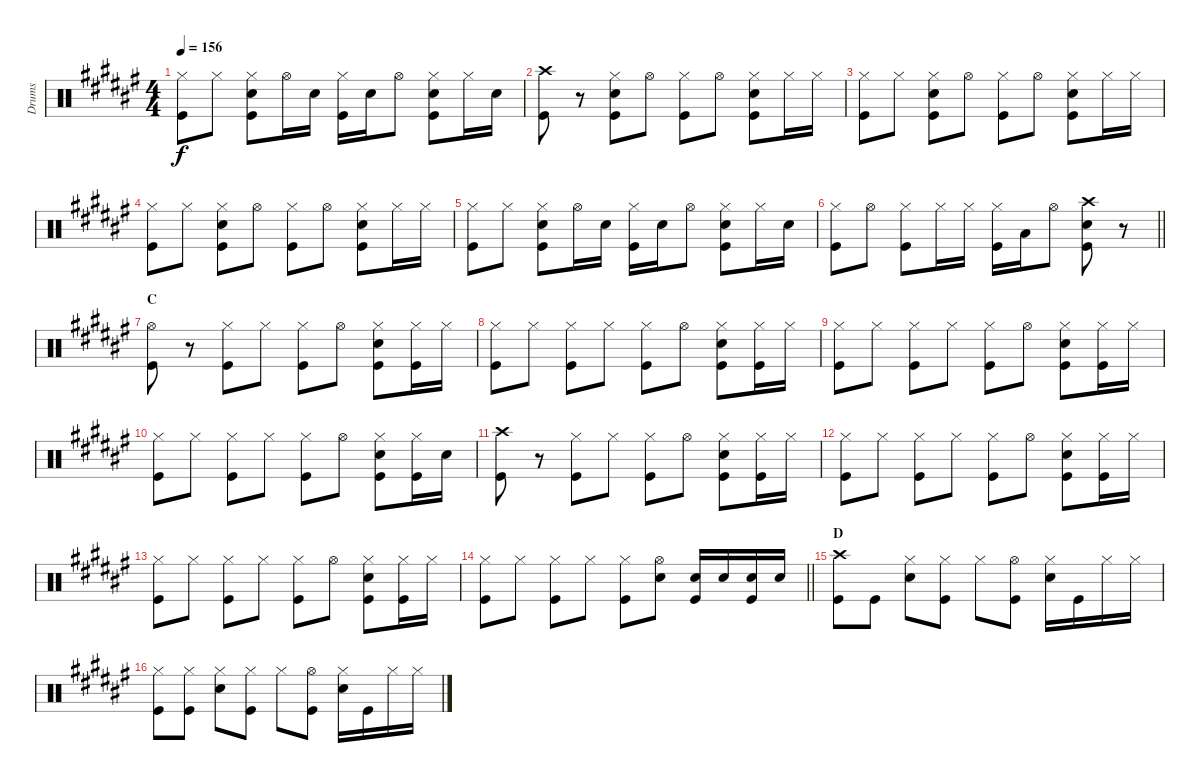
\track ("Drums" "Drums") {instrument percussion}
\staff {score}
\articulation defaults
\ts (4 4)
\tempo 156
\clef neutral
\ks f#
("Hi-Hat (closed)" "Kick (hit)").8{dy f} "Hi-Hat (closed)".8 ("Hi-Hat (closed)" "Snare (hit) 2" "Kick (hit)").8 "Hi-Hat (open)".16 "Snare (hit) 2".16 ("Hi-Hat (closed)" "Kick (hit)").16 "Snare (hit) 2".16 "Hi-Hat (open)".8 ("Hi-Hat (closed)" "Snare (hit) 2" "Kick (hit)").8 "Hi-Hat (closed)".16 "Snare (hit) 2".16 |
("Crash high (hit)" "Kick (hit)").8 r.8 ("Hi-Hat (closed)" "Snare (hit) 2" "Kick (hit)").8 "Hi-Hat (open)".8 ("Hi-Hat (closed)" "Kick (hit)").8 "Hi-Hat (open)".8 ("Hi-Hat (closed)" "Snare (hit) 2" "Kick (hit)").8 "Hi-Hat (closed)".16 "Hi-Hat (closed)".16 |
("Hi-Hat (closed)" "Kick (hit)").8 "Hi-Hat (closed)".8 ("Hi-Hat (closed)" "Snare (hit) 2" "Kick (hit)").8 "Hi-Hat (open)".8 ("Hi-Hat (closed)" "Kick (hit)").8 "Hi-Hat (open)".8 ("Hi-Hat (closed)" "Snare (hit) 2" "Kick (hit)").8 "Hi-Hat (closed)".16 "Hi-Hat (closed)".16 |
("Hi-Hat (closed)" "Kick (hit)").8 "Hi-Hat (closed)".8 ("Hi-Hat (closed)" "Snare (hit) 2" "Kick (hit)").8 "Hi-Hat (open)".8 ("Hi-Hat (closed)" "Kick (hit)").8 "Hi-Hat (open)".8 ("Hi-Hat (closed)" "Snare (hit) 2" "Kick (hit)").8 "Hi-Hat (closed)".16 "Hi-Hat (closed)".16 |
("Hi-Hat (closed)" "Kick (hit)").8 "Hi-Hat (closed)".8 ("Hi-Hat (closed)" "Snare (hit) 2" "Kick (hit)").8 "Hi-Hat (open)".16 "Snare (hit) 2".16 ("Hi-Hat (closed)" "Kick (hit)").16 "Snare (hit) 2".16 "Hi-Hat (open)".8 ("Hi-Hat (closed)" "Snare (hit) 2" "Kick (hit)").8 "Hi-Hat (closed)".16 "Snare (hit) 2".16 |
\barLineRight lightlight
("Hi-Hat (closed)" "Kick (hit)").8 "Hi-Hat (open)".8 ("Hi-Hat (closed)" "Kick (hit)").8 "Hi-Hat (closed)".16 "Hi-Hat (closed)".16 ("Hi-Hat (closed)" "Kick (hit)").16 "Low Tom (hit)".16 "Hi-Hat (open)".8 ("Crash high (hit)" "Snare (hit) 2" "Kick (hit)").8 r.8 |
\section ("" "C")
("Hi-Hat (open)" "Kick (hit)").8 r.8 ("Hi-Hat (closed)" "Kick (hit)").8 "Hi-Hat (closed)".8 ("Hi-Hat (closed)" "Kick (hit)").8 "Hi-Hat (open)".8 ("Hi-Hat (closed)" "Snare (hit) 2" "Kick (hit)").8 ("Hi-Hat (closed)" "Kick (hit)").16 "Hi-Hat (closed)".16 |
("Hi-Hat (closed)" "Kick (hit)").8 "Hi-Hat (closed)".8 ("Hi-Hat (closed)" "Kick (hit)").8 "Hi-Hat (closed)".8 ("Hi-Hat (closed)" "Kick (hit)").8 "Hi-Hat (open)".8 ("Hi-Hat (closed)" "Snare (hit) 2" "Kick (hit)").8 ("Hi-Hat (closed)" "Kick (hit)").16 "Hi-Hat (closed)".16 |
("Hi-Hat (closed)" "Kick (hit)").8 "Hi-Hat (closed)".8 ("Hi-Hat (closed)" "Kick (hit)").8 "Hi-Hat (closed)".8 ("Hi-Hat (closed)" "Kick (hit)").8 "Hi-Hat (open)".8 ("Hi-Hat (closed)" "Snare (hit) 2" "Kick (hit)").8 ("Hi-Hat (closed)" "Kick (hit)").16 "Hi-Hat (closed)".16 |
("Hi-Hat (closed)" "Kick (hit)").8 "Hi-Hat (closed)".8 ("Hi-Hat (closed)" "Kick (hit)").8 "Hi-Hat (closed)".8 ("Hi-Hat (closed)" "Kick (hit)").8 "Hi-Hat (open)".8 ("Hi-Hat (closed)" "Snare (hit) 2" "Kick (hit)").8 ("Hi-Hat (closed)" "Kick (hit)").16 "Snare (hit) 2".16 |
("Crash high (hit)" "Kick (hit)").8 r.8 ("Hi-Hat (closed)" "Kick (hit)").8 "Hi-Hat (closed)".8 ("Hi-Hat (closed)" "Kick (hit)").8 "Hi-Hat (open)".8 ("Hi-Hat (closed)" "Snare (hit) 2" "Kick (hit)").8 ("Hi-Hat (closed)" "Kick (hit)").16 "Hi-Hat (closed)".16 |
("Hi-Hat (closed)" "Kick (hit)").8 "Hi-Hat (closed)".8 ("Hi-Hat (closed)" "Kick (hit)").8 "Hi-Hat (closed)".8 ("Hi-Hat (closed)" "Kick (hit)").8 "Hi-Hat (open)".8 ("Hi-Hat (closed)" "Snare (hit) 2" "Kick (hit)").8 ("Hi-Hat (closed)" "Kick (hit)").16 "Hi-Hat (closed)".16 |
("Hi-Hat (closed)" "Kick (hit)").8 "Hi-Hat (closed)".8 ("Hi-Hat (closed)" "Kick (hit)").8 "Hi-Hat (closed)".8 ("Hi-Hat (closed)" "Kick (hit)").8 "Hi-Hat (open)".8 ("Hi-Hat (closed)" "Snare (hit) 2" "Kick (hit)").8 ("Hi-Hat (closed)" "Kick (hit)").16 "Hi-Hat (closed)".16 |
\barLineRight lightlight
("Hi-Hat (closed)" "Kick (hit)").8 "Hi-Hat (closed)".8 ("Hi-Hat (closed)" "Kick (hit)").8 "Hi-Hat (closed)".8 ("Hi-Hat (closed)" "Kick (hit)").8 ("Hi-Hat (open)" "Snare (hit) 2").8 ("Snare (hit) 2" "Kick (hit)").16 "Snare (hit) 2".16 ("Snare (hit) 2" "Kick (hit)").16 "Snare (hit) 2".16 |
\section ("" "D")
("Crash high (hit)" "Kick (hit)").8 "Kick (hit)".8 ("Hi-Hat (closed)" "Snare (hit) 2").8 ("Hi-Hat (closed)" "Kick (hit)").8 "Hi-Hat (closed)".8 ("Hi-Hat (open)" "Kick (hit)").8 ("Hi-Hat (closed)" "Snare (hit) 2").16 "Kick (hit)".16 "Hi-Hat (closed)".16 "Hi-Hat (closed)".16 |
("Hi-Hat (closed)" "Kick (hit)").8 ("Hi-Hat (closed)" "Kick (hit)").8 ("Hi-Hat (closed)" "Snare (hit) 2").8 ("Hi-Hat (closed)" "Kick (hit)").8 "Hi-Hat (closed)".8 ("Hi-Hat (open)" "Kick (hit)").8 ("Hi-Hat (closed)" "Snare (hit) 2").16 "Kick (hit)".16 "Hi-Hat (closed)".16 "Hi-Hat (closed)".16
